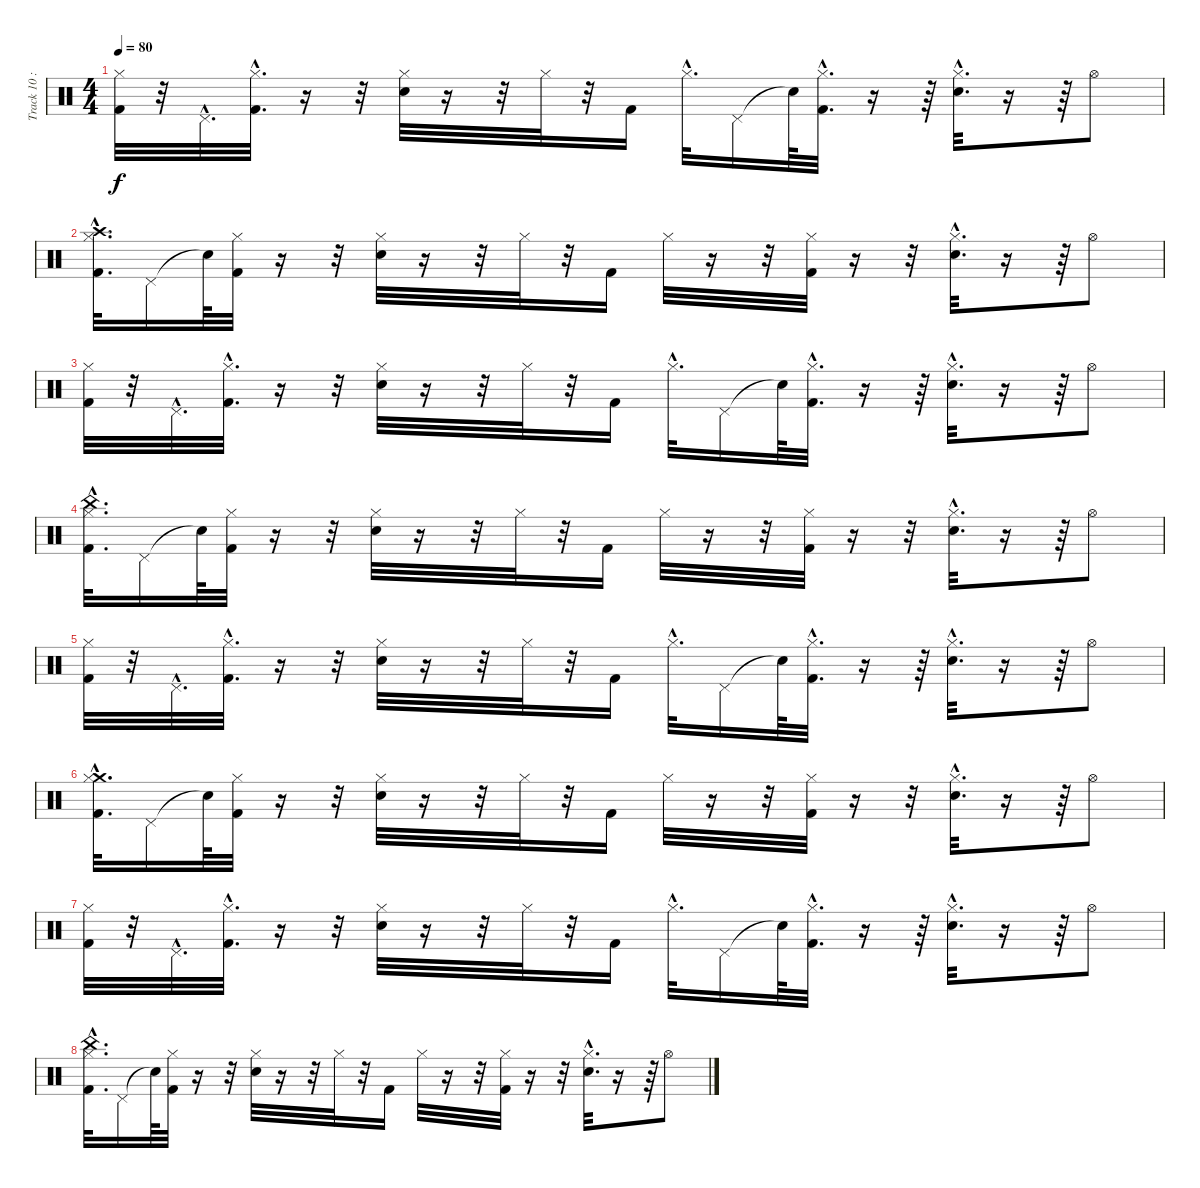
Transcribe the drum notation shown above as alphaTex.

\track ("Track 10 : unspecified" "Track 10 :") {instrument percussion}
\staff {score}
\articulation defaults
\ts (4 4)
\tempo 80
\clef neutral
\ks c
("Hi-Hat (closed)" "Kick (hit) 2").32{dy f} r.32 "Pedal Hi-Hat (hit)"{hac}.32{d} ("Hi-Hat (closed)"{hac} "Kick (hit) 2"{hac}).32{d} r.16 r.32 ("Snare (hit) 2" "Hi-Hat (closed)").32 r.16 r.32 "Hi-Hat (closed)".32 r.32 "Kick (hit) 2".16 "Hi-Hat (closed)"{hac}.32{d} "Pedal Hi-Hat (hit)".16 "Snare (hit)"{t}.64 ("Hi-Hat (closed)"{hac} "Kick (hit) 2"{hac}).32{d} r.16 r.64 ("Hi-Hat (closed)"{hac} "Snare (hit) 2"{hac}).32{d} r.16 r.64 "Hi-Hat (open)".8 |
("Kick (hit) 2"{hac} "Hi-Hat (closed)"{hac} "Crash high (hit)"{hac}).32{d} "Pedal Hi-Hat (hit)".16 "Snare (hit)"{t}.64 ("Hi-Hat (closed)" "Kick (hit) 2").32 r.16 r.32 ("Hi-Hat (closed)" "Snare (hit) 2").32 r.16 r.32 "Hi-Hat (closed)".32 r.32 "Kick (hit) 2".16 "Hi-Hat (closed)".32 r.16 r.32 ("Hi-Hat (closed)" "Kick (hit) 2").32 r.16 r.32 ("Hi-Hat (closed)"{hac} "Snare (hit) 2"{hac}).32{d} r.16 r.64 "Hi-Hat (open)".8 |
("Kick (hit) 2" "Hi-Hat (closed)").32 r.32 "Pedal Hi-Hat (hit)"{hac}.32{d} ("Kick (hit) 2"{hac} "Hi-Hat (closed)"{hac}).32{d} r.16 r.32 ("Hi-Hat (closed)" "Snare (hit) 2").32 r.16 r.32 "Hi-Hat (closed)".32 r.32 "Kick (hit) 2".16 "Hi-Hat (closed)"{hac}.32{d} "Pedal Hi-Hat (hit)".16 "Snare (hit)"{t}.64 ("Kick (hit) 2"{hac} "Hi-Hat (closed)"{hac}).32{d} r.16 r.64 ("Hi-Hat (closed)"{hac} "Snare (hit) 2"{hac}).32{d} r.16 r.64 "Hi-Hat (open)".8 |
("China (hit)"{hac} "Hi-Hat (closed)"{hac} "Kick (hit) 2"{hac}).32{d} "Pedal Hi-Hat (hit)".16 "Snare (hit)"{t}.64 ("Hi-Hat (closed)" "Kick (hit) 2").32 r.16 r.32 ("Snare (hit) 2" "Hi-Hat (closed)").32 r.16 r.32 "Hi-Hat (closed)".32 r.32 "Kick (hit) 2".16 "Hi-Hat (closed)".32 r.16 r.32 ("Kick (hit) 2" "Hi-Hat (closed)").32 r.16 r.32 ("Snare (hit) 2"{hac} "Hi-Hat (closed)"{hac}).32{d} r.16 r.64 "Hi-Hat (open)".8 |
("Kick (hit) 2" "Hi-Hat (closed)").32 r.32 "Pedal Hi-Hat (hit)"{hac}.32{d} ("Hi-Hat (closed)"{hac} "Kick (hit) 2"{hac}).32{d} r.16 r.32 ("Hi-Hat (closed)" "Snare (hit) 2").32 r.16 r.32 "Hi-Hat (closed)".32 r.32 "Kick (hit) 2".16 "Hi-Hat (closed)"{hac}.32{d} "Pedal Hi-Hat (hit)".16 "Snare (hit)"{t}.64 ("Kick (hit) 2"{hac} "Hi-Hat (closed)"{hac}).32{d} r.16 r.64 ("Snare (hit) 2"{hac} "Hi-Hat (closed)"{hac}).32{d} r.16 r.64 "Hi-Hat (open)".8 |
("Kick (hit) 2"{hac} "Crash medium (hit)"{hac} "Hi-Hat (closed)"{hac}).32{d} "Pedal Hi-Hat (hit)".16 "Snare (hit)"{t}.64 ("Hi-Hat (closed)" "Kick (hit) 2").32 r.16 r.32 ("Snare (hit) 2" "Hi-Hat (closed)").32 r.16 r.32 "Hi-Hat (closed)".32 r.32 "Kick (hit) 2".16 "Hi-Hat (closed)".32 r.16 r.32 ("Kick (hit) 2" "Hi-Hat (closed)").32 r.16 r.32 ("Hi-Hat (closed)"{hac} "Snare (hit) 2"{hac}).32{d} r.16 r.64 "Hi-Hat (open)".8 |
("Hi-Hat (closed)" "Kick (hit) 2").32 r.32 "Pedal Hi-Hat (hit)"{hac}.32{d} ("Hi-Hat (closed)"{hac} "Kick (hit) 2"{hac}).32{d} r.16 r.32 ("Snare (hit) 2" "Hi-Hat (closed)").32 r.16 r.32 "Hi-Hat (closed)".32 r.32 "Kick (hit) 2".16 "Hi-Hat (closed)"{hac}.32{d} "Pedal Hi-Hat (hit)".16 "Snare (hit)"{t}.64 ("Hi-Hat (closed)"{hac} "Kick (hit) 2"{hac}).32{d} r.16 r.64 ("Hi-Hat (closed)"{hac} "Snare (hit) 2"{hac}).32{d} r.16 r.64 "Hi-Hat (open)".8 |
("Kick (hit) 2"{hac} "China (hit)"{hac} "Hi-Hat (closed)"{hac}).32{d} "Pedal Hi-Hat (hit)".16 "Snare (hit)"{t}.64 ("Hi-Hat (closed)" "Kick (hit) 2").32 r.16 r.32 ("Hi-Hat (closed)" "Snare (hit) 2").32 r.16 r.32 "Hi-Hat (closed)".32 r.32 "Kick (hit) 2".16 "Hi-Hat (closed)".32 r.16 r.32 ("Hi-Hat (closed)" "Kick (hit) 2").32 r.16 r.32 ("Hi-Hat (closed)"{hac} "Snare (hit) 2"{hac}).32{d} r.16 r.64 "Hi-Hat (open)".8
